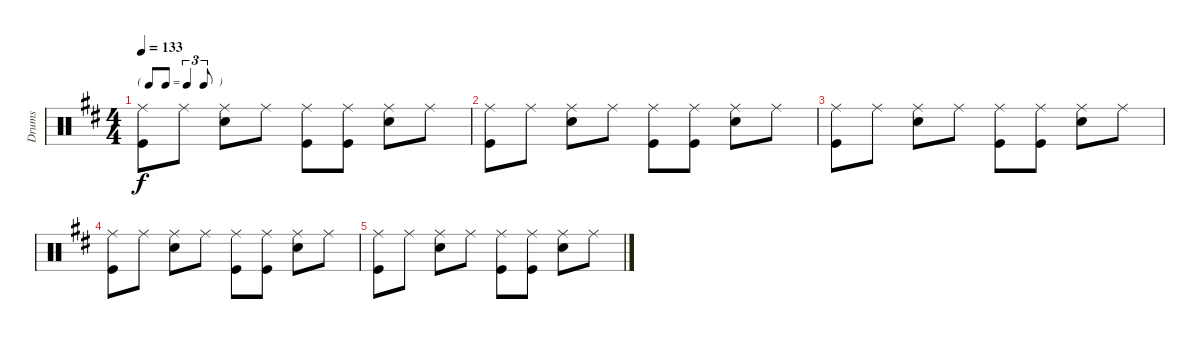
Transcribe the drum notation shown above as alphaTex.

\track ("Drums" "Drums") {instrument percussion}
\staff {score}
\articulation defaults
\ts (4 4)
\tf triplet8th
\tempo 133
\clef neutral
\ks d
("Ride (middle)" "Kick (hit)").8{dy f} "Ride (middle)".8 ("Ride (middle)" "Snare (hit) 2").8 "Ride (middle)".8 ("Ride (middle)" "Kick (hit)").8 ("Ride (middle)" "Kick (hit)").8 ("Ride (middle)" "Snare (hit) 2").8 "Ride (middle)".8 |
("Ride (middle)" "Kick (hit)").8 "Ride (middle)".8 ("Ride (middle)" "Snare (hit) 2").8 "Ride (middle)".8 ("Ride (middle)" "Kick (hit)").8 ("Ride (middle)" "Kick (hit)").8 ("Ride (middle)" "Snare (hit) 2").8 "Ride (middle)".8 |
("Ride (middle)" "Kick (hit)").8 "Ride (middle)".8 ("Ride (middle)" "Snare (hit) 2").8 "Ride (middle)".8 ("Ride (middle)" "Kick (hit)").8 ("Ride (middle)" "Kick (hit)").8 ("Ride (middle)" "Snare (hit) 2").8 "Ride (middle)".8 |
("Ride (middle)" "Kick (hit)").8{volume 0} "Ride (middle)".8 ("Ride (middle)" "Snare (hit) 2").8 "Ride (middle)".8 ("Ride (middle)" "Kick (hit)").8 ("Ride (middle)" "Kick (hit)").8 ("Ride (middle)" "Snare (hit) 2").8 "Ride (middle)".8 |
("Ride (middle)" "Kick (hit)").8 "Ride (middle)".8 ("Ride (middle)" "Snare (hit) 2").8 "Ride (middle)".8 ("Ride (middle)" "Kick (hit)").8 ("Ride (middle)" "Kick (hit)").8 ("Ride (middle)" "Snare (hit) 2").8 "Ride (middle)".8
